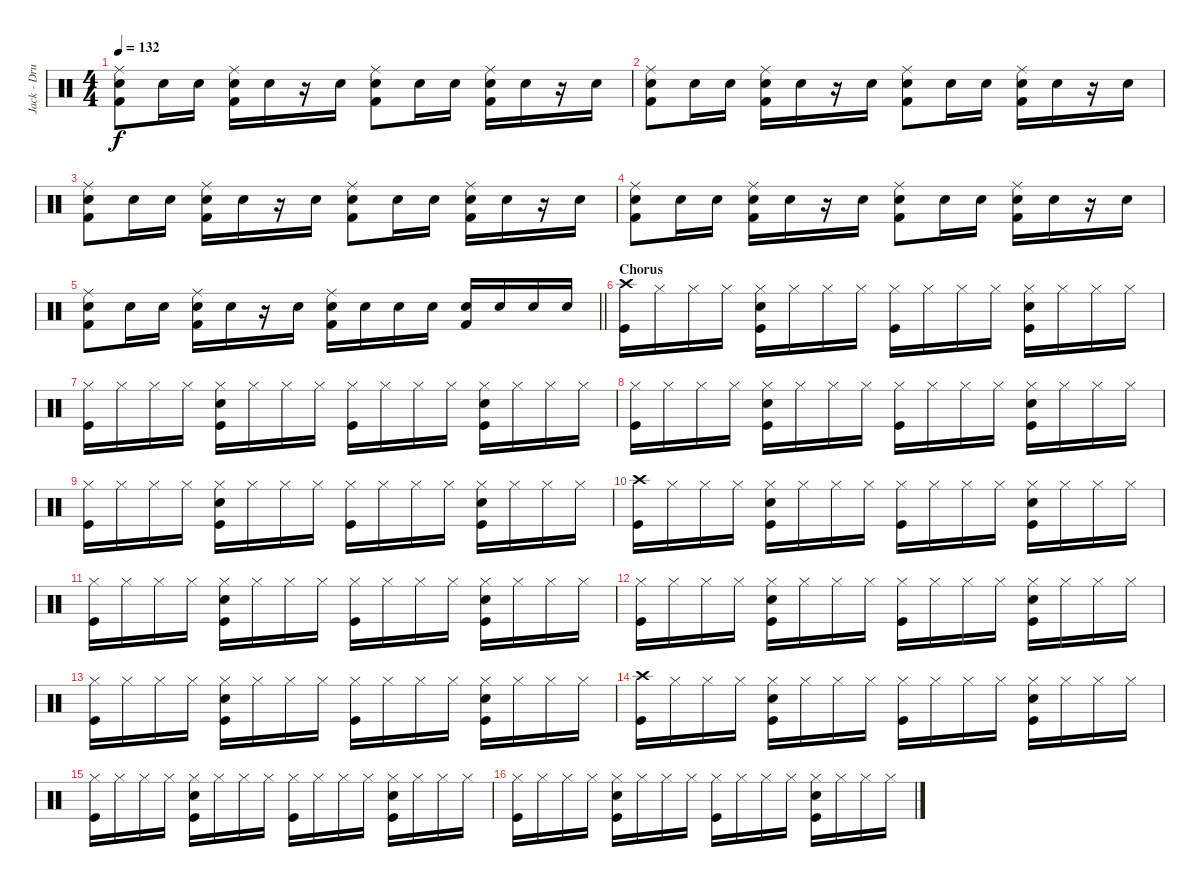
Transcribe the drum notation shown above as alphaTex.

\track ("Jack - Drums" "Jack - Dru") {instrument percussion}
\staff {score}
\articulation defaults
\ts (4 4)
\tempo 132
\clef neutral
\ks c
("Ride (middle)" "Snare (hit) 2" "Kick (hit) 2").8{dy f} "Snare (hit) 2".16 "Snare (hit) 2".16 ("Ride (middle)" "Snare (hit) 2" "Kick (hit) 2").16 "Snare (hit) 2".16 r.16 "Snare (hit) 2".16 ("Ride (middle)" "Snare (hit) 2" "Kick (hit) 2").8 "Snare (hit) 2".16 "Snare (hit) 2".16 ("Ride (middle)" "Snare (hit) 2" "Kick (hit) 2").16 "Snare (hit) 2".16 r.16 "Snare (hit) 2".16 |
("Ride (middle)" "Snare (hit) 2" "Kick (hit) 2").8 "Snare (hit) 2".16 "Snare (hit) 2".16 ("Ride (middle)" "Snare (hit) 2" "Kick (hit) 2").16 "Snare (hit) 2".16 r.16 "Snare (hit) 2".16 ("Ride (middle)" "Snare (hit) 2" "Kick (hit) 2").8 "Snare (hit) 2".16 "Snare (hit) 2".16 ("Ride (middle)" "Snare (hit) 2" "Kick (hit) 2").16 "Snare (hit) 2".16 r.16 "Snare (hit) 2".16 |
("Ride (middle)" "Snare (hit) 2" "Kick (hit) 2").8 "Snare (hit) 2".16 "Snare (hit) 2".16 ("Ride (middle)" "Snare (hit) 2" "Kick (hit) 2").16 "Snare (hit) 2".16 r.16 "Snare (hit) 2".16 ("Ride (middle)" "Snare (hit) 2" "Kick (hit) 2").8 "Snare (hit) 2".16 "Snare (hit) 2".16 ("Ride (middle)" "Snare (hit) 2" "Kick (hit) 2").16 "Snare (hit) 2".16 r.16 "Snare (hit) 2".16 |
("Ride (middle)" "Snare (hit) 2" "Kick (hit) 2").8 "Snare (hit) 2".16 "Snare (hit) 2".16 ("Ride (middle)" "Snare (hit) 2" "Kick (hit) 2").16 "Snare (hit) 2".16 r.16 "Snare (hit) 2".16 ("Ride (middle)" "Snare (hit) 2" "Kick (hit) 2").8 "Snare (hit) 2".16 "Snare (hit) 2".16 ("Ride (middle)" "Snare (hit) 2" "Kick (hit) 2").16 "Snare (hit) 2".16 r.16 "Snare (hit) 2".16 |
\barLineRight lightlight
("Ride (middle)" "Snare (hit) 2" "Kick (hit) 2").8 "Snare (hit) 2".16 "Snare (hit) 2".16 ("Ride (middle)" "Snare (hit) 2" "Kick (hit) 2").16 "Snare (hit) 2".16 r.16 "Snare (hit) 2".16 ("Ride (middle)" "Snare (hit) 2" "Kick (hit) 2").16 "Snare (hit) 2".16 "Snare (hit) 2".16 "Snare (hit) 2".16 ("Snare (hit) 2" "Kick (hit) 2").16 "Snare (hit) 2".16 "Snare (hit) 2".16 "Snare (hit) 2".16 |
\section ("" "Chorus")
("Crash high (hit)" "Kick (hit)").16 "Hi-Hat (closed)".16 "Hi-Hat (closed)".16 "Hi-Hat (closed)".16 ("Hi-Hat (closed)" "Snare (hit) 2" "Kick (hit)").16 "Hi-Hat (closed)".16 "Hi-Hat (closed)".16 "Hi-Hat (closed)".16 ("Hi-Hat (closed)" "Kick (hit)").16 "Hi-Hat (closed)".16 "Hi-Hat (closed)".16 "Hi-Hat (closed)".16 ("Hi-Hat (closed)" "Snare (hit) 2" "Kick (hit)").16 "Hi-Hat (closed)".16 "Hi-Hat (closed)".16 "Hi-Hat (closed)".16 |
("Hi-Hat (closed)" "Kick (hit)").16 "Hi-Hat (closed)".16 "Hi-Hat (closed)".16 "Hi-Hat (closed)".16 ("Hi-Hat (closed)" "Snare (hit) 2" "Kick (hit)").16 "Hi-Hat (closed)".16 "Hi-Hat (closed)".16 "Hi-Hat (closed)".16 ("Hi-Hat (closed)" "Kick (hit)").16 "Hi-Hat (closed)".16 "Hi-Hat (closed)".16 "Hi-Hat (closed)".16 ("Hi-Hat (closed)" "Snare (hit) 2" "Kick (hit)").16 "Hi-Hat (closed)".16 "Hi-Hat (closed)".16 "Hi-Hat (closed)".16 |
("Hi-Hat (closed)" "Kick (hit)").16 "Hi-Hat (closed)".16 "Hi-Hat (closed)".16 "Hi-Hat (closed)".16 ("Hi-Hat (closed)" "Snare (hit) 2" "Kick (hit)").16 "Hi-Hat (closed)".16 "Hi-Hat (closed)".16 "Hi-Hat (closed)".16 ("Hi-Hat (closed)" "Kick (hit)").16 "Hi-Hat (closed)".16 "Hi-Hat (closed)".16 "Hi-Hat (closed)".16 ("Hi-Hat (closed)" "Snare (hit) 2" "Kick (hit)").16 "Hi-Hat (closed)".16 "Hi-Hat (closed)".16 "Hi-Hat (closed)".16 |
("Hi-Hat (closed)" "Kick (hit)").16 "Hi-Hat (closed)".16 "Hi-Hat (closed)".16 "Hi-Hat (closed)".16 ("Hi-Hat (closed)" "Snare (hit) 2" "Kick (hit)").16 "Hi-Hat (closed)".16 "Hi-Hat (closed)".16 "Hi-Hat (closed)".16 ("Hi-Hat (closed)" "Kick (hit)").16 "Hi-Hat (closed)".16 "Hi-Hat (closed)".16 "Hi-Hat (closed)".16 ("Hi-Hat (closed)" "Snare (hit) 2" "Kick (hit)").16 "Hi-Hat (closed)".16 "Hi-Hat (closed)".16 "Hi-Hat (closed)".16 |
("Crash high (hit)" "Kick (hit)").16 "Hi-Hat (closed)".16 "Hi-Hat (closed)".16 "Hi-Hat (closed)".16 ("Hi-Hat (closed)" "Snare (hit) 2" "Kick (hit)").16 "Hi-Hat (closed)".16 "Hi-Hat (closed)".16 "Hi-Hat (closed)".16 ("Hi-Hat (closed)" "Kick (hit)").16 "Hi-Hat (closed)".16 "Hi-Hat (closed)".16 "Hi-Hat (closed)".16 ("Hi-Hat (closed)" "Snare (hit) 2" "Kick (hit)").16 "Hi-Hat (closed)".16 "Hi-Hat (closed)".16 "Hi-Hat (closed)".16 |
("Hi-Hat (closed)" "Kick (hit)").16 "Hi-Hat (closed)".16 "Hi-Hat (closed)".16 "Hi-Hat (closed)".16 ("Hi-Hat (closed)" "Snare (hit) 2" "Kick (hit)").16 "Hi-Hat (closed)".16 "Hi-Hat (closed)".16 "Hi-Hat (closed)".16 ("Hi-Hat (closed)" "Kick (hit)").16 "Hi-Hat (closed)".16 "Hi-Hat (closed)".16 "Hi-Hat (closed)".16 ("Hi-Hat (closed)" "Snare (hit) 2" "Kick (hit)").16 "Hi-Hat (closed)".16 "Hi-Hat (closed)".16 "Hi-Hat (closed)".16 |
("Hi-Hat (closed)" "Kick (hit)").16 "Hi-Hat (closed)".16 "Hi-Hat (closed)".16 "Hi-Hat (closed)".16 ("Hi-Hat (closed)" "Snare (hit) 2" "Kick (hit)").16 "Hi-Hat (closed)".16 "Hi-Hat (closed)".16 "Hi-Hat (closed)".16 ("Hi-Hat (closed)" "Kick (hit)").16 "Hi-Hat (closed)".16 "Hi-Hat (closed)".16 "Hi-Hat (closed)".16 ("Hi-Hat (closed)" "Snare (hit) 2" "Kick (hit)").16 "Hi-Hat (closed)".16 "Hi-Hat (closed)".16 "Hi-Hat (closed)".16 |
("Hi-Hat (closed)" "Kick (hit)").16 "Hi-Hat (closed)".16 "Hi-Hat (closed)".16 "Hi-Hat (closed)".16 ("Hi-Hat (closed)" "Snare (hit) 2" "Kick (hit)").16 "Hi-Hat (closed)".16 "Hi-Hat (closed)".16 "Hi-Hat (closed)".16 ("Hi-Hat (closed)" "Kick (hit)").16 "Hi-Hat (closed)".16 "Hi-Hat (closed)".16 "Hi-Hat (closed)".16 ("Hi-Hat (closed)" "Snare (hit) 2" "Kick (hit)").16 "Hi-Hat (closed)".16 "Hi-Hat (closed)".16 "Hi-Hat (closed)".16 |
("Crash high (hit)" "Kick (hit)").16 "Hi-Hat (closed)".16 "Hi-Hat (closed)".16 "Hi-Hat (closed)".16 ("Hi-Hat (closed)" "Snare (hit) 2" "Kick (hit)").16 "Hi-Hat (closed)".16 "Hi-Hat (closed)".16 "Hi-Hat (closed)".16 ("Hi-Hat (closed)" "Kick (hit)").16 "Hi-Hat (closed)".16 "Hi-Hat (closed)".16 "Hi-Hat (closed)".16 ("Hi-Hat (closed)" "Snare (hit) 2" "Kick (hit)").16 "Hi-Hat (closed)".16 "Hi-Hat (closed)".16 "Hi-Hat (closed)".16 |
("Hi-Hat (closed)" "Kick (hit)").16 "Hi-Hat (closed)".16 "Hi-Hat (closed)".16 "Hi-Hat (closed)".16 ("Hi-Hat (closed)" "Snare (hit) 2" "Kick (hit)").16 "Hi-Hat (closed)".16 "Hi-Hat (closed)".16 "Hi-Hat (closed)".16 ("Hi-Hat (closed)" "Kick (hit)").16 "Hi-Hat (closed)".16 "Hi-Hat (closed)".16 "Hi-Hat (closed)".16 ("Hi-Hat (closed)" "Snare (hit) 2" "Kick (hit)").16 "Hi-Hat (closed)".16 "Hi-Hat (closed)".16 "Hi-Hat (closed)".16 |
("Hi-Hat (closed)" "Kick (hit)").16 "Hi-Hat (closed)".16 "Hi-Hat (closed)".16 "Hi-Hat (closed)".16 ("Hi-Hat (closed)" "Snare (hit) 2" "Kick (hit)").16 "Hi-Hat (closed)".16 "Hi-Hat (closed)".16 "Hi-Hat (closed)".16 ("Hi-Hat (closed)" "Kick (hit)").16 "Hi-Hat (closed)".16 "Hi-Hat (closed)".16 "Hi-Hat (closed)".16 ("Hi-Hat (closed)" "Snare (hit) 2" "Kick (hit)").16 "Hi-Hat (closed)".16 "Hi-Hat (closed)".16 "Hi-Hat (closed)".16
